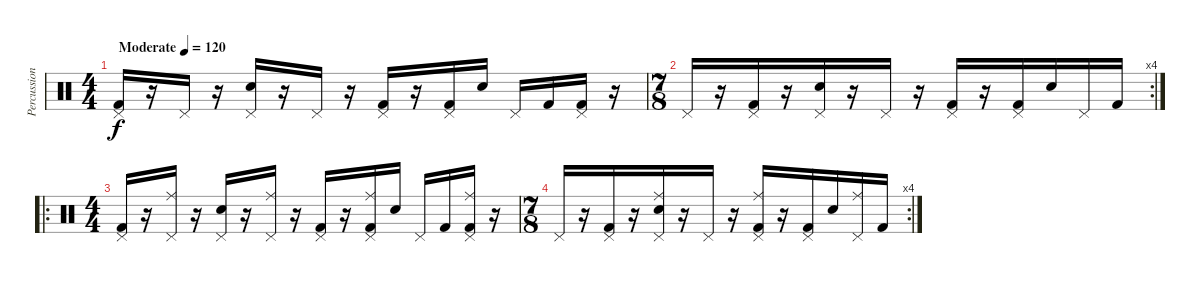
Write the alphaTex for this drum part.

\track ("Percussion" "Percussion") {instrument percussion}
\staff {score}
\articulation defaults
\ts (4 4)
\tempo (120 "Moderate")
\clef neutral
\ks c
("Pedal Hi-Hat (hit)" "Kick (hit) 2").16{dy f} r.16 "Pedal Hi-Hat (hit)".16 r.16 ("Electric Snare (hit)" "Pedal Hi-Hat (hit)").16 r.16 "Pedal Hi-Hat (hit)".16 r.16 ("Pedal Hi-Hat (hit)" "Kick (hit) 2").16 r.16 ("Pedal Hi-Hat (hit)" "Kick (hit) 2").16 "Electric Snare (hit)".16 "Pedal Hi-Hat (hit)".16 "Kick (hit) 2".16 ("Pedal Hi-Hat (hit)" "Kick (hit) 2").16 r.16 |
\rc 4
\ts (7 8)
"Pedal Hi-Hat (hit)".16 r.16 ("Pedal Hi-Hat (hit)" "Kick (hit) 2").16 r.16 ("Electric Snare (hit)" "Pedal Hi-Hat (hit)").16 r.16 "Pedal Hi-Hat (hit)".16 r.16 ("Pedal Hi-Hat (hit)" "Kick (hit) 2").16 r.16 ("Pedal Hi-Hat (hit)" "Kick (hit) 2").16 "Electric Snare (hit)".16 "Pedal Hi-Hat (hit)".16 "Kick (hit) 2".16 |
\ro
\ts (4 4)
("Pedal Hi-Hat (hit)" "Kick (hit) 2").16 r.16 ("Ride (middle)" "Pedal Hi-Hat (hit)").16 r.16 ("Electric Snare (hit)" "Pedal Hi-Hat (hit)").16 r.16 ("Ride (middle)" "Pedal Hi-Hat (hit)").16 r.16 ("Pedal Hi-Hat (hit)" "Kick (hit) 2").16 r.16 ("Ride (middle)" "Pedal Hi-Hat (hit)" "Kick (hit) 2").16 "Electric Snare (hit)".16 "Pedal Hi-Hat (hit)".16 "Kick (hit) 2".16 ("Ride (middle)" "Pedal Hi-Hat (hit)" "Kick (hit) 2").16 r.16 |
\rc 4
\ts (7 8)
"Pedal Hi-Hat (hit)".16 r.16 ("Pedal Hi-Hat (hit)" "Kick (hit) 2").16 r.16 ("Ride (middle)" "Electric Snare (hit)" "Pedal Hi-Hat (hit)").16 r.16 "Pedal Hi-Hat (hit)".16 r.16 ("Ride (middle)" "Pedal Hi-Hat (hit)" "Kick (hit) 2").16 r.16 ("Pedal Hi-Hat (hit)" "Kick (hit) 2").16 "Electric Snare (hit)".16 ("Ride (middle)" "Pedal Hi-Hat (hit)").16 "Kick (hit) 2".16
